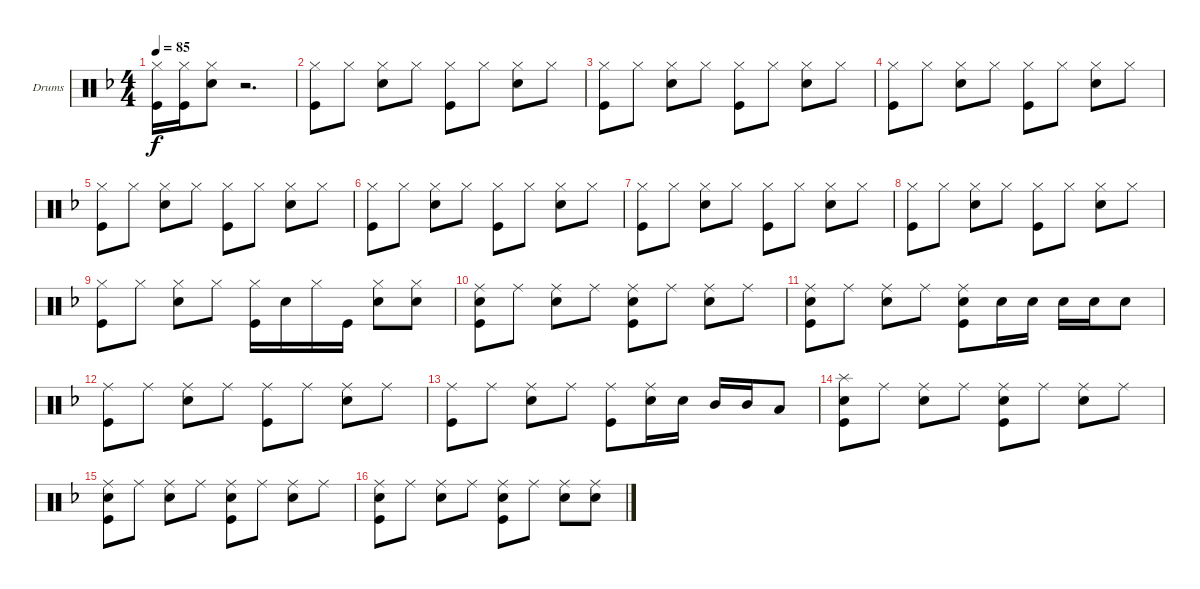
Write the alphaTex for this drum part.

\bracketExtendMode groupsimilarinstruments
\firstSystemTrackNameOrientation horizontal
\otherSystemsTrackNameOrientation horizontal
\track ("Drumkit" "Drums") {instrument percussion}
\staff {score}
\articulation defaults
\ts (4 4)
\tempo 85
\clef neutral
\ks dminor
("Kick (hit)" "Hi-Hat (closed)").16{dy f} ("Kick (hit)" "Hi-Hat (closed)").16 ("Snare (hit) 2" "Hi-Hat (closed)").8 r.2{d} |
("Hi-Hat (closed)" "Kick (hit)").8 "Hi-Hat (closed)".8 ("Hi-Hat (closed)" "Snare (hit) 2").8 "Hi-Hat (closed)".8 ("Hi-Hat (closed)" "Kick (hit)").8 "Hi-Hat (closed)".8 ("Hi-Hat (closed)" "Snare (hit) 2").8 "Hi-Hat (closed)".8 |
("Hi-Hat (closed)" "Kick (hit)").8 "Hi-Hat (closed)".8 ("Hi-Hat (closed)" "Snare (hit) 2").8 "Hi-Hat (closed)".8 ("Hi-Hat (closed)" "Kick (hit)").8 "Hi-Hat (closed)".8 ("Hi-Hat (closed)" "Snare (hit) 2").8 "Hi-Hat (closed)".8 |
("Hi-Hat (closed)" "Kick (hit)").8 "Hi-Hat (closed)".8 ("Hi-Hat (closed)" "Snare (hit) 2").8 "Hi-Hat (closed)".8 ("Hi-Hat (closed)" "Kick (hit)").8 "Hi-Hat (closed)".8 ("Hi-Hat (closed)" "Snare (hit) 2").8 "Hi-Hat (closed)".8 |
("Hi-Hat (closed)" "Kick (hit)").8 "Hi-Hat (closed)".8 ("Hi-Hat (closed)" "Snare (hit) 2").8 "Hi-Hat (closed)".8 ("Hi-Hat (closed)" "Kick (hit)").8 "Hi-Hat (closed)".8 ("Hi-Hat (closed)" "Snare (hit) 2").8 "Hi-Hat (closed)".8 |
("Hi-Hat (closed)" "Kick (hit)").8 "Hi-Hat (closed)".8 ("Hi-Hat (closed)" "Snare (hit) 2").8 "Hi-Hat (closed)".8 ("Hi-Hat (closed)" "Kick (hit)").8 "Hi-Hat (closed)".8 ("Hi-Hat (closed)" "Snare (hit) 2").8 "Hi-Hat (closed)".8 |
("Hi-Hat (closed)" "Kick (hit)").8 "Hi-Hat (closed)".8 ("Hi-Hat (closed)" "Snare (hit) 2").8 "Hi-Hat (closed)".8 ("Hi-Hat (closed)" "Kick (hit)").8 "Hi-Hat (closed)".8 ("Hi-Hat (closed)" "Snare (hit) 2").8 "Hi-Hat (closed)".8 |
("Hi-Hat (closed)" "Kick (hit)").8 "Hi-Hat (closed)".8 ("Hi-Hat (closed)" "Snare (hit) 2").8 "Hi-Hat (closed)".8 ("Hi-Hat (closed)" "Kick (hit)").8 "Hi-Hat (closed)".8 ("Hi-Hat (closed)" "Snare (hit) 2").8 "Hi-Hat (closed)".8 |
("Hi-Hat (closed)" "Kick (hit)").8 "Hi-Hat (closed)".8 ("Hi-Hat (closed)" "Snare (hit) 2").8 "Hi-Hat (closed)".8 ("Hi-Hat (closed)" "Kick (hit)").16 "Snare (hit) 2".16 "Hi-Hat (closed)".16 "Kick (hit)".16 ("Snare (hit) 2" "Hi-Hat (closed)").8 ("Snare (hit) 2" "Hi-Hat (closed)").8 |
("Ride (middle)" "Snare (hit) 2" "Kick (hit)").8 "Ride (middle)".8 ("Ride (middle)" "Snare (hit) 2").8 "Ride (middle)".8 ("Ride (middle)" "Snare (hit) 2" "Kick (hit)").8 "Ride (middle)".8 ("Ride (middle)" "Snare (hit) 2").8 "Ride (middle)".8 |
("Ride (middle)" "Snare (hit) 2" "Kick (hit)").8 "Ride (middle)".8 ("Ride (middle)" "Snare (hit) 2").8 "Ride (middle)".8 ("Ride (middle)" "Snare (hit) 2" "Kick (hit)").8 "Snare (hit) 2".16 "Snare (hit) 2".16 "Snare (hit) 2".16 "Snare (hit) 2".16 "Snare (hit) 2".8 |
("Kick (hit)" "Ride (middle)").8 "Ride (middle)".8 ("Ride (middle)" "Snare (hit) 2").8 "Ride (middle)".8 ("Ride (middle)" "Kick (hit)").8 "Ride (middle)".8 ("Ride (middle)" "Snare (hit) 2").8 "Ride (middle)".8 |
("Kick (hit)" "Ride (middle)").8 "Ride (middle)".8 ("Ride (middle)" "Snare (hit) 2").8 "Ride (middle)".8 ("Ride (middle)" "Kick (hit)").8 ("Ride (middle)" "Snare (hit) 2").16 "Snare (hit) 2".16 "Mid Tom (hit)".16 "Mid Tom (hit)".16 "Low Tom (hit)".8 |
("Kick (hit)" "Splash (hit)" "Snare (hit) 2").8 "Ride (middle)".8 ("Ride (middle)" "Snare (hit) 2").8 "Ride (middle)".8 ("Ride (middle)" "Kick (hit)" "Snare (hit) 2").8 "Ride (middle)".8 ("Ride (middle)" "Snare (hit) 2").8 "Ride (middle)".8 |
("Kick (hit)" "Ride (middle)" "Snare (hit) 2").8 "Ride (middle)".8 ("Ride (middle)" "Snare (hit) 2").8 "Ride (middle)".8 ("Ride (middle)" "Kick (hit)" "Snare (hit) 2").8 "Ride (middle)".8 ("Ride (middle)" "Snare (hit) 2").8 "Ride (middle)".8 |
("Kick (hit)" "Ride (middle)" "Snare (hit) 2").8 "Ride (middle)".8 ("Ride (middle)" "Snare (hit) 2").8 "Ride (middle)".8 ("Ride (middle)" "Kick (hit)" "Snare (hit) 2").8 "Ride (middle)".8 ("Ride (middle)" "Snare (hit) 2").8 ("Ride (middle)" "Snare (hit) 2").8
